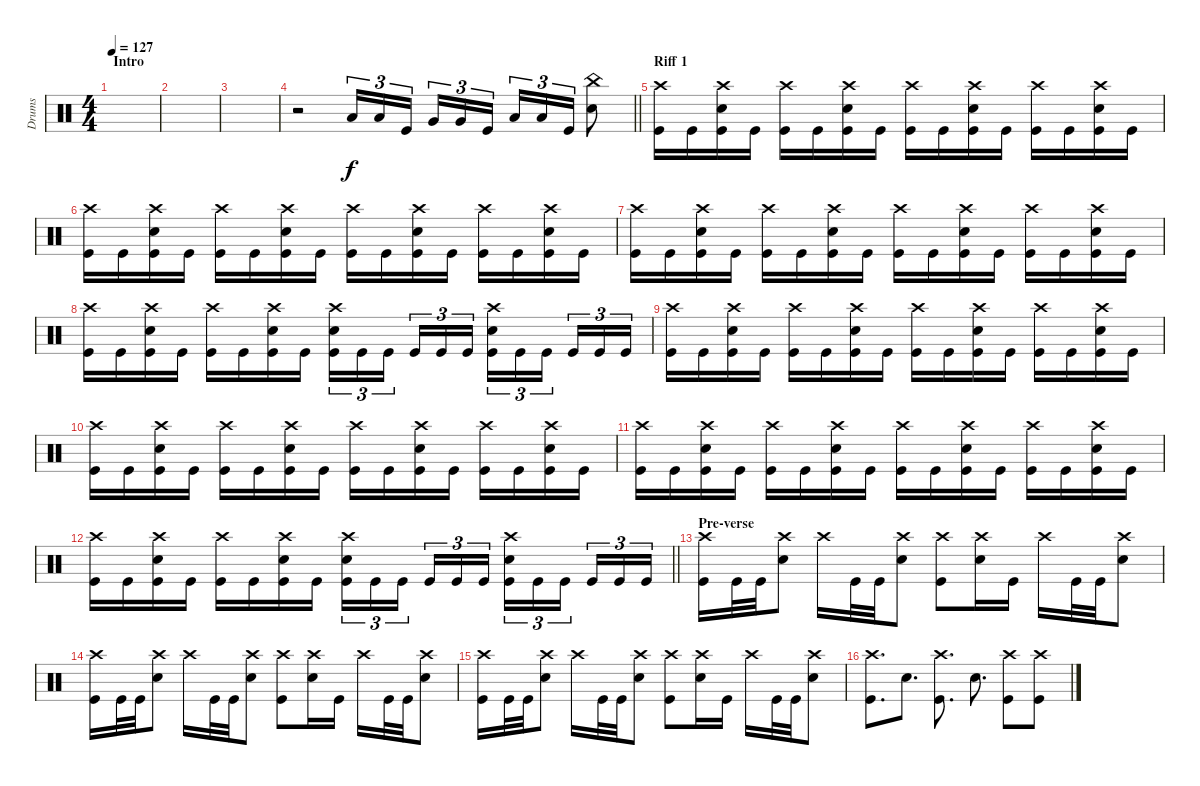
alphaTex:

\track ("Drums" "Drums") {instrument percussion}
\staff {score}
\articulation defaults
\ts (4 4)
\section ("" "Intro")
\tempo 127
\clef neutral
\ks c
|
|
|
\barLineRight lightlight
r.2 "Low Tom (hit)".16{tu (3 2)} "Low Tom (hit)".16{tu (3 2)} "Kick (hit)".16{tu (3 2) beam splitsecondary} "Very Low Tom (hit)".16{tu (3 2)} "Very Low Tom (hit)".16{tu (3 2)} "Kick (hit)".16{tu (3 2)} "Low Floor Tom (hit)".16{tu (3 2)} "Low Floor Tom (hit)".16{tu (3 2)} "Kick (hit)".16{tu (3 2)} ("Snare (hit) 2" "China (hit)").8 |
\section ("" "Riff 1")
("Kick (hit)" "Crash high (hit)").16 "Kick (hit)".16 ("Snare (hit) 2" "Crash high (hit)" "Kick (hit)").16 "Kick (hit)".16 ("Kick (hit)" "Crash high (hit)").16 "Kick (hit)".16 ("Snare (hit) 2" "Crash high (hit)" "Kick (hit)").16 "Kick (hit)".16 ("Kick (hit)" "Crash high (hit)").16 "Kick (hit)".16 ("Snare (hit) 2" "Crash high (hit)" "Kick (hit)").16 "Kick (hit)".16 ("Kick (hit)" "Crash high (hit)").16 "Kick (hit)".16 ("Snare (hit) 2" "Crash high (hit)" "Kick (hit)").16 "Kick (hit)".16 |
("Kick (hit)" "Crash high (hit)").16 "Kick (hit)".16 ("Snare (hit) 2" "Crash high (hit)" "Kick (hit)").16 "Kick (hit)".16 ("Kick (hit)" "Crash high (hit)").16 "Kick (hit)".16 ("Snare (hit) 2" "Crash high (hit)" "Kick (hit)").16 "Kick (hit)".16 ("Kick (hit)" "Crash high (hit)").16 "Kick (hit)".16 ("Snare (hit) 2" "Crash high (hit)" "Kick (hit)").16 "Kick (hit)".16 ("Kick (hit)" "Crash high (hit)").16 "Kick (hit)".16 ("Snare (hit) 2" "Crash high (hit)" "Kick (hit)").16 "Kick (hit)".16 |
("Kick (hit)" "Crash high (hit)").16 "Kick (hit)".16 ("Snare (hit) 2" "Crash high (hit)" "Kick (hit)").16 "Kick (hit)".16 ("Kick (hit)" "Crash high (hit)").16 "Kick (hit)".16 ("Snare (hit) 2" "Crash high (hit)" "Kick (hit)").16 "Kick (hit)".16 ("Kick (hit)" "Crash high (hit)").16 "Kick (hit)".16 ("Snare (hit) 2" "Crash high (hit)" "Kick (hit)").16 "Kick (hit)".16 ("Kick (hit)" "Crash high (hit)").16 "Kick (hit)".16 ("Snare (hit) 2" "Crash high (hit)" "Kick (hit)").16 "Kick (hit)".16 |
("Kick (hit)" "Crash high (hit)").16 "Kick (hit)".16 ("Snare (hit) 2" "Crash high (hit)" "Kick (hit)").16 "Kick (hit)".16 ("Kick (hit)" "Crash high (hit)").16 "Kick (hit)".16 ("Snare (hit) 2" "Crash high (hit)" "Kick (hit)").16 "Kick (hit)".16 ("Kick (hit)" "Snare (hit) 2" "Crash high (hit)").16{tu (3 2)} "Kick (hit)".16{tu (3 2)} "Kick (hit)".16{tu (3 2) beam splitsecondary} "Kick (hit)".16{tu (3 2)} "Kick (hit)".16{tu (3 2)} "Kick (hit)".16{tu (3 2)} ("Kick (hit)" "Snare (hit) 2" "Crash high (hit)").16{tu (3 2)} "Kick (hit)".16{tu (3 2)} "Kick (hit)".16{tu (3 2) beam splitsecondary} "Kick (hit)".16{tu (3 2)} "Kick (hit)".16{tu (3 2)} "Kick (hit)".16{tu (3 2)} |
("Kick (hit)" "Crash high (hit)").16 "Kick (hit)".16 ("Snare (hit) 2" "Crash high (hit)" "Kick (hit)").16 "Kick (hit)".16 ("Kick (hit)" "Crash high (hit)").16 "Kick (hit)".16 ("Snare (hit) 2" "Crash high (hit)" "Kick (hit)").16 "Kick (hit)".16 ("Kick (hit)" "Crash high (hit)").16 "Kick (hit)".16 ("Snare (hit) 2" "Crash high (hit)" "Kick (hit)").16 "Kick (hit)".16 ("Kick (hit)" "Crash high (hit)").16 "Kick (hit)".16 ("Snare (hit) 2" "Crash high (hit)" "Kick (hit)").16 "Kick (hit)".16 |
("Kick (hit)" "Crash high (hit)").16 "Kick (hit)".16 ("Snare (hit) 2" "Crash high (hit)" "Kick (hit)").16 "Kick (hit)".16 ("Kick (hit)" "Crash high (hit)").16 "Kick (hit)".16 ("Snare (hit) 2" "Crash high (hit)" "Kick (hit)").16 "Kick (hit)".16 ("Kick (hit)" "Crash high (hit)").16 "Kick (hit)".16 ("Snare (hit) 2" "Crash high (hit)" "Kick (hit)").16 "Kick (hit)".16 ("Kick (hit)" "Crash high (hit)").16 "Kick (hit)".16 ("Snare (hit) 2" "Crash high (hit)" "Kick (hit)").16 "Kick (hit)".16 |
("Kick (hit)" "Crash high (hit)").16 "Kick (hit)".16 ("Snare (hit) 2" "Crash high (hit)" "Kick (hit)").16 "Kick (hit)".16 ("Kick (hit)" "Crash high (hit)").16 "Kick (hit)".16 ("Snare (hit) 2" "Crash high (hit)" "Kick (hit)").16 "Kick (hit)".16 ("Kick (hit)" "Crash high (hit)").16 "Kick (hit)".16 ("Snare (hit) 2" "Crash high (hit)" "Kick (hit)").16 "Kick (hit)".16 ("Kick (hit)" "Crash high (hit)").16 "Kick (hit)".16 ("Snare (hit) 2" "Crash high (hit)" "Kick (hit)").16 "Kick (hit)".16 |
\barLineRight lightlight
("Kick (hit)" "Crash high (hit)").16 "Kick (hit)".16 ("Snare (hit) 2" "Crash high (hit)" "Kick (hit)").16 "Kick (hit)".16 ("Kick (hit)" "Crash high (hit)").16 "Kick (hit)".16 ("Snare (hit) 2" "Crash high (hit)" "Kick (hit)").16 "Kick (hit)".16 ("Kick (hit)" "Snare (hit) 2" "Crash high (hit)").16{tu (3 2)} "Kick (hit)".16{tu (3 2)} "Kick (hit)".16{tu (3 2) beam splitsecondary} "Kick (hit)".16{tu (3 2)} "Kick (hit)".16{tu (3 2)} "Kick (hit)".16{tu (3 2)} ("Kick (hit)" "Snare (hit) 2" "Crash high (hit)").16{tu (3 2)} "Kick (hit)".16{tu (3 2)} "Kick (hit)".16{tu (3 2) beam splitsecondary} "Kick (hit)".16{tu (3 2)} "Kick (hit)".16{tu (3 2)} "Kick (hit)".16{tu (3 2)} |
\section ("" "Pre-verse")
("Kick (hit)" "Crash high (hit)").16 "Kick (hit)".32 "Kick (hit)".32 ("Snare (hit) 2" "Crash high (hit)").8 "Crash high (hit)".16 "Kick (hit)".32 "Kick (hit)".32 ("Snare (hit) 2" "Crash high (hit)").8 ("Kick (hit)" "Crash high (hit)").8 ("Snare (hit) 2" "Crash high (hit)").16 "Kick (hit)".16 "Crash high (hit)".16 "Kick (hit)".32 "Kick (hit)".32 ("Snare (hit) 2" "Crash high (hit)").8 |
("Kick (hit)" "Crash high (hit)").16 "Kick (hit)".32 "Kick (hit)".32 ("Snare (hit) 2" "Crash high (hit)").8 "Crash high (hit)".16 "Kick (hit)".32 "Kick (hit)".32 ("Snare (hit) 2" "Crash high (hit)").8 ("Kick (hit)" "Crash high (hit)").8 ("Snare (hit) 2" "Crash high (hit)").16 "Kick (hit)".16 "Crash high (hit)".16 "Kick (hit)".32 "Kick (hit)".32 ("Snare (hit) 2" "Crash high (hit)").8 |
("Kick (hit)" "Crash high (hit)").16 "Kick (hit)".32 "Kick (hit)".32 ("Snare (hit) 2" "Crash high (hit)").8 "Crash high (hit)".16 "Kick (hit)".32 "Kick (hit)".32 ("Snare (hit) 2" "Crash high (hit)").8 ("Kick (hit)" "Crash high (hit)").8 ("Snare (hit) 2" "Crash high (hit)").16 "Kick (hit)".16 "Crash high (hit)".16 "Kick (hit)".32 "Kick (hit)".32 ("Snare (hit) 2" "Crash high (hit)").8 |
("Kick (hit)" "Crash high (hit)").8{d} "Snare (hit) 2".8{d} ("Kick (hit)" "Crash high (hit)").8{d} "Snare (hit) 2".8{d} ("Kick (hit)" "Crash high (hit)").8 ("Kick (hit)" "Crash high (hit)").8
